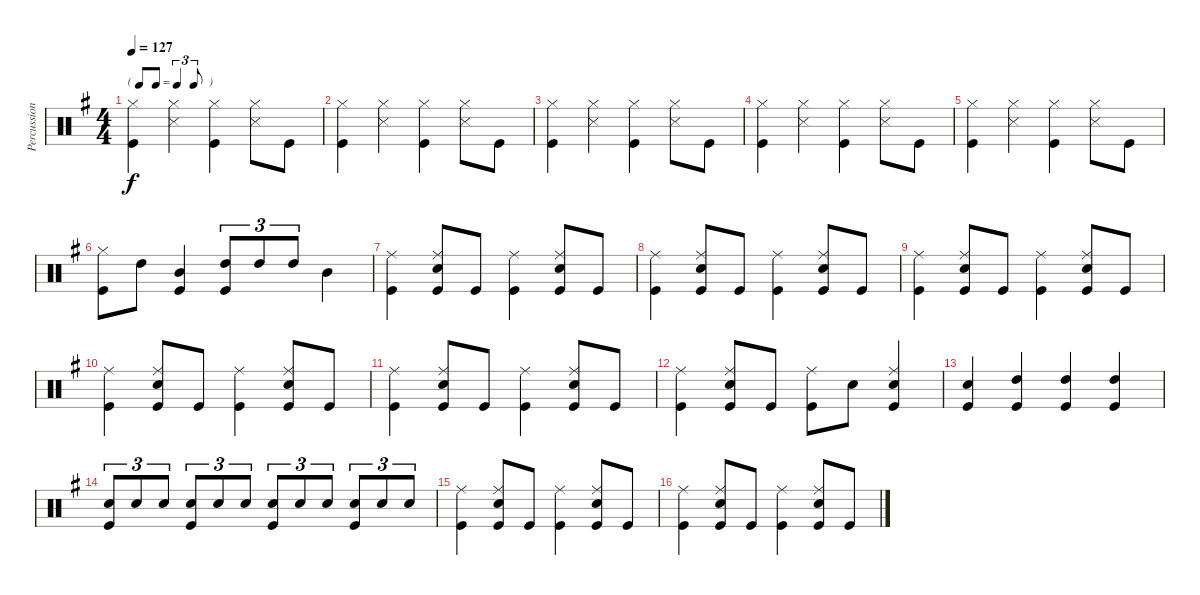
\track ("Percussion" "Percussion") {instrument percussion}
\staff {score}
\articulation defaults
\ts (4 4)
\tf triplet8th
\tempo 127
\clef neutral
\ks g
("Hi-Hat (closed)" "Kick (hit)").4{dy f} ("Hi-Hat (closed)" "Snare (side stick) 3").4 ("Hi-Hat (closed)" "Kick (hit)").4 ("Hi-Hat (closed)" "Snare (side stick) 3").8 "Kick (hit)".8 |
("Hi-Hat (closed)" "Kick (hit)").4 ("Hi-Hat (closed)" "Snare (side stick) 3").4 ("Hi-Hat (closed)" "Kick (hit)").4 ("Hi-Hat (closed)" "Snare (side stick) 3").8 "Kick (hit)".8 |
("Hi-Hat (closed)" "Kick (hit)").4 ("Hi-Hat (closed)" "Snare (side stick) 3").4 ("Hi-Hat (closed)" "Kick (hit)").4 ("Hi-Hat (closed)" "Snare (side stick) 3").8 "Kick (hit)".8 |
("Hi-Hat (closed)" "Kick (hit)").4 ("Hi-Hat (closed)" "Snare (side stick) 3").4 ("Hi-Hat (closed)" "Kick (hit)").4 ("Hi-Hat (closed)" "Snare (side stick) 3").8 "Kick (hit)".8 |
("Hi-Hat (closed)" "Kick (hit)").4 ("Hi-Hat (closed)" "Snare (side stick) 3").4 ("Hi-Hat (closed)" "Kick (hit)").4 ("Hi-Hat (closed)" "Snare (side stick) 3").8 "Kick (hit)".8 |
("Hi-Hat (closed)" "Kick (hit)").8 "High Tom (hit)".8 ("Mid Tom (hit)" "Kick (hit)").4 ("High Tom (hit)" "Kick (hit)").8{tu (3 2)} "High Tom (hit)".8{tu (3 2)} "High Tom (hit)".8{tu (3 2)} "Mid Tom (hit)".4 |
("Ride (middle)" "Kick (hit)").4 ("Ride (middle)" "Snare (hit) 2" "Kick (hit)").8 "Kick (hit)".8 ("Ride (middle)" "Kick (hit)").4 ("Ride (middle)" "Snare (hit) 2" "Kick (hit)").8 "Kick (hit)".8 |
("Ride (middle)" "Kick (hit)").4 ("Ride (middle)" "Snare (hit) 2" "Kick (hit)").8 "Kick (hit)".8 ("Ride (middle)" "Kick (hit)").4 ("Ride (middle)" "Snare (hit) 2" "Kick (hit)").8 "Kick (hit)".8 |
("Ride (middle)" "Kick (hit)").4 ("Ride (middle)" "Snare (hit) 2" "Kick (hit)").8 "Kick (hit)".8 ("Ride (middle)" "Kick (hit)").4 ("Ride (middle)" "Snare (hit) 2" "Kick (hit)").8 "Kick (hit)".8 |
("Ride (middle)" "Kick (hit)").4 ("Ride (middle)" "Snare (hit) 2" "Kick (hit)").8 "Kick (hit)".8 ("Ride (middle)" "Kick (hit)").4 ("Ride (middle)" "Snare (hit) 2" "Kick (hit)").8 "Kick (hit)".8 |
("Ride (middle)" "Kick (hit)").4 ("Ride (middle)" "Snare (hit) 2" "Kick (hit)").8 "Kick (hit)".8 ("Ride (middle)" "Kick (hit)").4 ("Ride (middle)" "Snare (hit) 2" "Kick (hit)").8 "Kick (hit)".8 |
("Ride (middle)" "Kick (hit)").4 ("Ride (middle)" "Snare (hit) 2" "Kick (hit)").8 "Kick (hit)".8 ("Ride (middle)" "Kick (hit)").8 "Snare (hit) 2".8 ("Ride (middle)" "Snare (hit) 2" "Kick (hit)").4 |
("Snare (hit) 2" "Kick (hit)").4 ("High Tom (hit)" "Kick (hit)").4 ("High Tom (hit)" "Kick (hit)").4 ("High Tom (hit)" "Kick (hit)").4 |
("Snare (hit) 2" "Kick (hit)").8{tu (3 2)} "Snare (hit) 2".8{tu (3 2)} "Snare (hit) 2".8{tu (3 2)} ("Snare (hit) 2" "Kick (hit)").8{tu (3 2)} "Snare (hit) 2".8{tu (3 2)} "Snare (hit) 2".8{tu (3 2)} ("Snare (hit) 2" "Kick (hit)").8{tu (3 2)} "Snare (hit) 2".8{tu (3 2)} "Snare (hit) 2".8{tu (3 2)} ("Snare (hit) 2" "Kick (hit)").8{tu (3 2)} "Snare (hit) 2".8{tu (3 2)} "Snare (hit) 2".8{tu (3 2)} |
("Ride (middle)" "Kick (hit)").4 ("Ride (middle)" "Snare (hit) 2" "Kick (hit)").8 "Kick (hit)".8 ("Ride (middle)" "Kick (hit)").4 ("Ride (middle)" "Snare (hit) 2" "Kick (hit)").8 "Kick (hit)".8 |
("Ride (middle)" "Kick (hit)").4 ("Ride (middle)" "Snare (hit) 2" "Kick (hit)").8 "Kick (hit)".8 ("Ride (middle)" "Kick (hit)").4 ("Ride (middle)" "Snare (hit) 2" "Kick (hit)").8 "Kick (hit)".8
